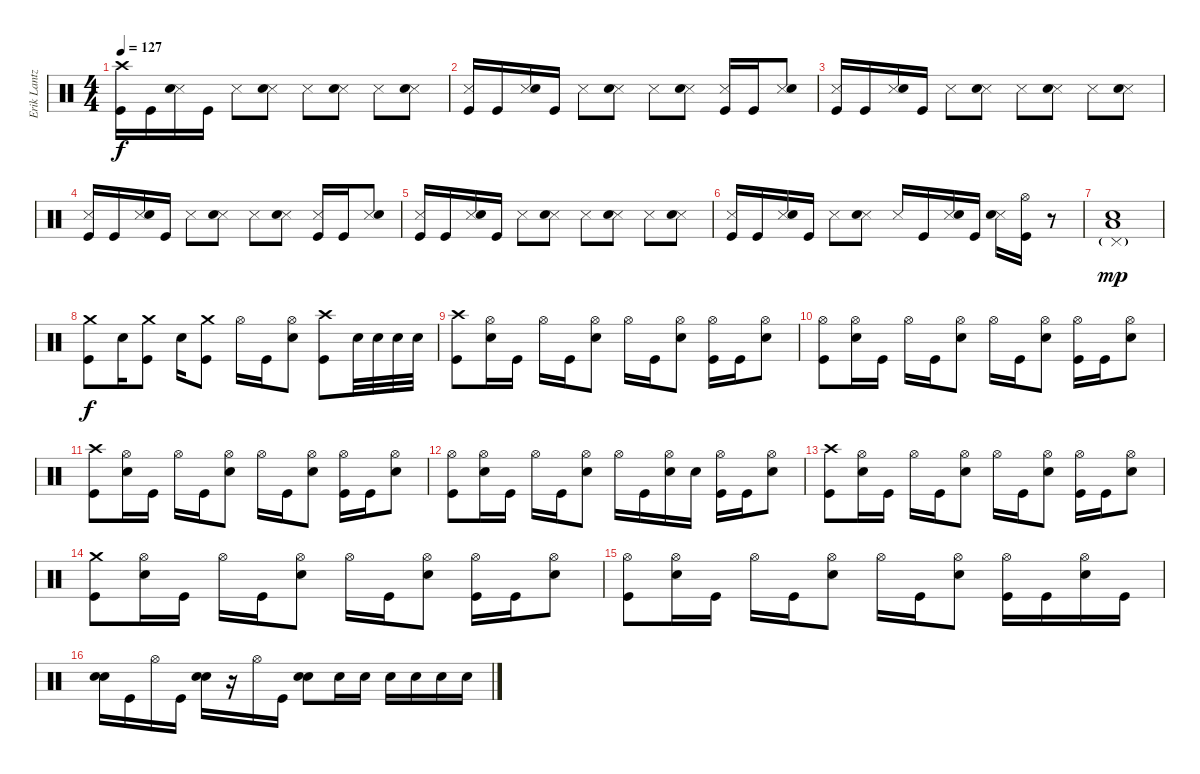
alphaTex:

\track ("Erik Lantz" "Erik Lantz") {instrument percussion}
\staff {score}
\articulation defaults
\ts (4 4)
\tempo 127
\clef neutral
\ks c
("Crash high (hit)" "Kick (hit)").16{dy f} "Kick (hit)".16 ("Snare (side stick) 3" "Electric Snare (hit)").16 "Kick (hit)".16 "Snare (side stick) 3".8 ("Snare (side stick) 3" "Electric Snare (hit)").8 "Snare (side stick) 3".8 ("Snare (side stick) 3" "Electric Snare (hit)").8 "Snare (side stick) 3".8 ("Snare (side stick) 3" "Electric Snare (hit)").8 |
("Snare (side stick) 3" "Kick (hit)").16 "Kick (hit)".16 ("Snare (side stick) 3" "Electric Snare (hit)").16 "Kick (hit)".16 "Snare (side stick) 3".8 ("Snare (side stick) 3" "Electric Snare (hit)").8 "Snare (side stick) 3".8 ("Snare (side stick) 3" "Electric Snare (hit)").8 ("Snare (side stick) 3" "Kick (hit)").16 "Kick (hit)".16 ("Snare (side stick) 3" "Electric Snare (hit)").8 |
("Snare (side stick) 3" "Kick (hit)").16 "Kick (hit)".16 ("Snare (side stick) 3" "Electric Snare (hit)").16 "Kick (hit)".16 "Snare (side stick) 3".8 ("Snare (side stick) 3" "Electric Snare (hit)").8 "Snare (side stick) 3".8 ("Snare (side stick) 3" "Electric Snare (hit)").8 "Snare (side stick) 3".8 ("Snare (side stick) 3" "Electric Snare (hit)").8 |
("Snare (side stick) 3" "Kick (hit)").16 "Kick (hit)".16 ("Snare (side stick) 3" "Electric Snare (hit)").16 "Kick (hit)".16 "Snare (side stick) 3".8 ("Snare (side stick) 3" "Electric Snare (hit)").8 "Snare (side stick) 3".8 ("Snare (side stick) 3" "Electric Snare (hit)").8 ("Snare (side stick) 3" "Kick (hit)").16 "Kick (hit)".16 ("Snare (side stick) 3" "Electric Snare (hit)").8 |
("Snare (side stick) 3" "Kick (hit)").16 "Kick (hit)".16 ("Snare (side stick) 3" "Electric Snare (hit)").16 "Kick (hit)".16 "Snare (side stick) 3".8 ("Snare (side stick) 3" "Electric Snare (hit)").8 "Snare (side stick) 3".8 ("Snare (side stick) 3" "Electric Snare (hit)").8 "Snare (side stick) 3".8 ("Snare (side stick) 3" "Electric Snare (hit)").8 |
("Snare (side stick) 3" "Kick (hit)").16 "Kick (hit)".16 ("Snare (side stick) 3" "Electric Snare (hit)").16 "Kick (hit)".16 "Snare (side stick) 3".8 ("Snare (side stick) 3" "Electric Snare (hit)").8 "Snare (side stick) 3".16 "Kick (hit)".16 ("Snare (side stick) 3" "Electric Snare (hit)").16 "Kick (hit)".16 ("Snare (side stick) 3" "Electric Snare (hit)").16 ("Hi-Hat (open)" "Kick (hit)").16 r.8 |
("Electric Snare (hit)" "Low Floor Tom (hit)" "Pedal Hi-Hat (hit)"{g}).1{dy mp} |
("Crash medium (hit)" "Kick (hit)").8{dy f} "Electric Snare (hit)".16 ("Crash medium (hit)" "Kick (hit)").8 "Electric Snare (hit)".16 ("Crash medium (hit)" "Kick (hit)").8 "Hi-Hat (open)".16 "Kick (hit)".16 ("Hi-Hat (open)" "Electric Snare (hit)").8 ("Crash high (hit)" "Kick (hit)").8 "Electric Snare (hit)".32 "Electric Snare (hit)".32 "Electric Snare (hit)".32 "Electric Snare (hit)".32 |
("Crash high (hit)" "Kick (hit)").8 ("Hi-Hat (open)" "Electric Snare (hit)").16 "Kick (hit)".16 "Hi-Hat (open)".16 "Kick (hit)".16 ("Hi-Hat (open)" "Electric Snare (hit)").8 "Hi-Hat (open)".16 "Kick (hit)".16 ("Hi-Hat (open)" "Electric Snare (hit)").8 ("Hi-Hat (open)" "Kick (hit)").16 "Kick (hit)".16 ("Hi-Hat (open)" "Electric Snare (hit)").8 |
("Hi-Hat (open)" "Kick (hit)").8 ("Hi-Hat (open)" "Electric Snare (hit)").16 "Kick (hit)".16 "Hi-Hat (open)".16 "Kick (hit)".16 ("Hi-Hat (open)" "Electric Snare (hit)").8 "Hi-Hat (open)".16 "Kick (hit)".16 ("Hi-Hat (open)" "Electric Snare (hit)").8 ("Hi-Hat (open)" "Kick (hit)").16 "Kick (hit)".16 ("Hi-Hat (open)" "Electric Snare (hit)").8 |
("Crash high (hit)" "Kick (hit)").8 ("Hi-Hat (open)" "Electric Snare (hit)").16 "Kick (hit)".16 "Hi-Hat (open)".16 "Kick (hit)".16 ("Hi-Hat (open)" "Electric Snare (hit)").8 "Hi-Hat (open)".16 "Kick (hit)".16 ("Hi-Hat (open)" "Electric Snare (hit)").8 ("Hi-Hat (open)" "Kick (hit)").16 "Kick (hit)".16 ("Hi-Hat (open)" "Electric Snare (hit)").8 |
("Hi-Hat (open)" "Kick (hit)").8 ("Hi-Hat (open)" "Electric Snare (hit)").16 "Kick (hit)".16 "Hi-Hat (open)".16 "Kick (hit)".16 ("Hi-Hat (open)" "Electric Snare (hit)").8 "Hi-Hat (open)".16 "Kick (hit)".16 ("Hi-Hat (open)" "Electric Snare (hit)").16 "Electric Snare (hit)".16 ("Hi-Hat (open)" "Kick (hit)").16 "Kick (hit)".16 ("Hi-Hat (open)" "Electric Snare (hit)").8 |
("Crash high (hit)" "Kick (hit)").8 ("Hi-Hat (open)" "Electric Snare (hit)").16 "Kick (hit)".16 "Hi-Hat (open)".16 "Kick (hit)".16 ("Hi-Hat (open)" "Electric Snare (hit)").8 "Hi-Hat (open)".16 "Kick (hit)".16 ("Hi-Hat (open)" "Electric Snare (hit)").8 ("Hi-Hat (open)" "Kick (hit)").16 "Kick (hit)".16 ("Hi-Hat (open)" "Electric Snare (hit)").8 |
("Crash medium (hit)" "Kick (hit)").8 ("Hi-Hat (open)" "Electric Snare (hit)").16 "Kick (hit)".16 "Hi-Hat (open)".16 "Kick (hit)".16 ("Hi-Hat (open)" "Electric Snare (hit)").8 "Hi-Hat (open)".16 "Kick (hit)".16 ("Hi-Hat (open)" "Electric Snare (hit)").8 ("Hi-Hat (open)" "Kick (hit)").16 "Kick (hit)".16 ("Hi-Hat (open)" "Electric Snare (hit)").8 |
("Hi-Hat (open)" "Kick (hit)").8 ("Hi-Hat (open)" "Electric Snare (hit)").16 "Kick (hit)".16 "Hi-Hat (open)".16 "Kick (hit)".16 ("Hi-Hat (open)" "Electric Snare (hit)").8 "Hi-Hat (open)".16 "Kick (hit)".16 ("Hi-Hat (open)" "Electric Snare (hit)").8 ("Hi-Hat (open)" "Kick (hit)").16 "Kick (hit)".16 ("Hi-Hat (open)" "Electric Snare (hit)").16 "Kick (hit)".16 |
("Electric Snare (hit)" "Electric Snare (hit)").16 "Kick (hit)".16 "Hi-Hat (open)".16 "Kick (hit)".16 ("Electric Snare (hit)" "Electric Snare (hit)").16 r.16 "Hi-Hat (open)".16 "Kick (hit)".16 ("Electric Snare (hit)" "Electric Snare (hit)").8 "Electric Snare (hit)".16 "Electric Snare (hit)".16 "Electric Snare (hit)".16 "Electric Snare (hit)".16 "Electric Snare (hit)".16 "Electric Snare (hit)".16
